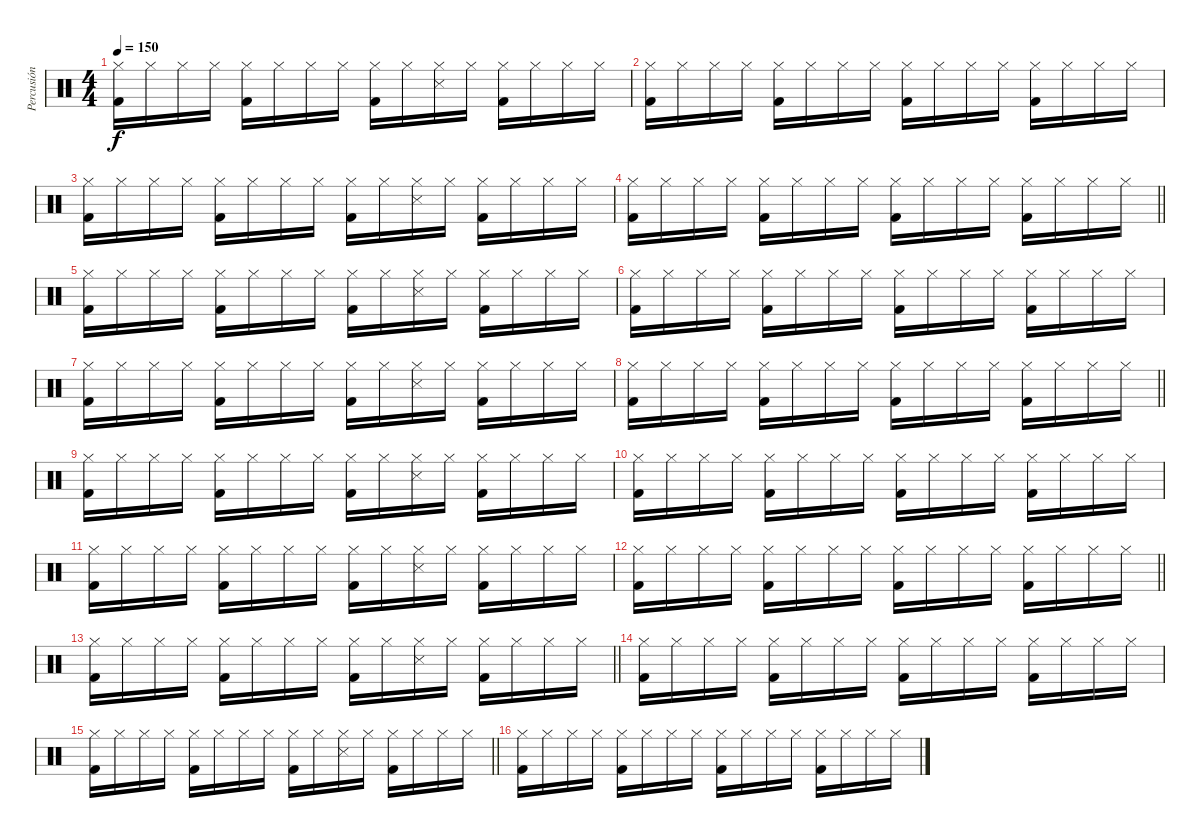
\track ("Percusión" "Percusión") {instrument percussion}
\staff {score}
\articulation defaults
\ts (4 4)
\tempo 150
\clef neutral
\ks c
("Kick (hit) 2" "Hi-Hat (closed)").16{dy f} "Hi-Hat (closed)".16 "Hi-Hat (closed)".16 "Hi-Hat (closed)".16 ("Kick (hit) 2" "Hi-Hat (closed)").16 "Hi-Hat (closed)".16 "Hi-Hat (closed)".16 "Hi-Hat (closed)".16 ("Kick (hit) 2" "Hi-Hat (closed)").16 "Hi-Hat (closed)".16 ("Snare (side stick) 3" "Hi-Hat (closed)").16 "Hi-Hat (closed)".16 ("Kick (hit) 2" "Hi-Hat (closed)").16 "Hi-Hat (closed)".16 "Hi-Hat (closed)".16 "Hi-Hat (closed)".16 |
("Kick (hit) 2" "Hi-Hat (closed)").16 "Hi-Hat (closed)".16 "Hi-Hat (closed)".16 "Hi-Hat (closed)".16 ("Kick (hit) 2" "Hi-Hat (closed)").16 "Hi-Hat (closed)".16 "Hi-Hat (closed)".16 "Hi-Hat (closed)".16 ("Kick (hit) 2" "Hi-Hat (closed)").16 "Hi-Hat (closed)".16 "Hi-Hat (closed)".16 "Hi-Hat (closed)".16 ("Kick (hit) 2" "Hi-Hat (closed)").16 "Hi-Hat (closed)".16 "Hi-Hat (closed)".16 "Hi-Hat (closed)".16 |
("Kick (hit) 2" "Hi-Hat (closed)").16 "Hi-Hat (closed)".16 "Hi-Hat (closed)".16 "Hi-Hat (closed)".16 ("Kick (hit) 2" "Hi-Hat (closed)").16 "Hi-Hat (closed)".16 "Hi-Hat (closed)".16 "Hi-Hat (closed)".16 ("Kick (hit) 2" "Hi-Hat (closed)").16 "Hi-Hat (closed)".16 ("Snare (side stick) 3" "Hi-Hat (closed)").16 "Hi-Hat (closed)".16 ("Kick (hit) 2" "Hi-Hat (closed)").16 "Hi-Hat (closed)".16 "Hi-Hat (closed)".16 "Hi-Hat (closed)".16 |
\barLineRight lightlight
("Kick (hit) 2" "Hi-Hat (closed)").16 "Hi-Hat (closed)".16 "Hi-Hat (closed)".16 "Hi-Hat (closed)".16 ("Kick (hit) 2" "Hi-Hat (closed)").16 "Hi-Hat (closed)".16 "Hi-Hat (closed)".16 "Hi-Hat (closed)".16 ("Kick (hit) 2" "Hi-Hat (closed)").16 "Hi-Hat (closed)".16 "Hi-Hat (closed)".16 "Hi-Hat (closed)".16 ("Kick (hit) 2" "Hi-Hat (closed)").16 "Hi-Hat (closed)".16 "Hi-Hat (closed)".16 "Hi-Hat (closed)".16 |
("Kick (hit) 2" "Hi-Hat (closed)").16 "Hi-Hat (closed)".16 "Hi-Hat (closed)".16 "Hi-Hat (closed)".16 ("Kick (hit) 2" "Hi-Hat (closed)").16 "Hi-Hat (closed)".16 "Hi-Hat (closed)".16 "Hi-Hat (closed)".16 ("Kick (hit) 2" "Hi-Hat (closed)").16 "Hi-Hat (closed)".16 ("Snare (side stick) 3" "Hi-Hat (closed)").16 "Hi-Hat (closed)".16 ("Kick (hit) 2" "Hi-Hat (closed)").16 "Hi-Hat (closed)".16 "Hi-Hat (closed)".16 "Hi-Hat (closed)".16 |
("Kick (hit) 2" "Hi-Hat (closed)").16 "Hi-Hat (closed)".16 "Hi-Hat (closed)".16 "Hi-Hat (closed)".16 ("Kick (hit) 2" "Hi-Hat (closed)").16 "Hi-Hat (closed)".16 "Hi-Hat (closed)".16 "Hi-Hat (closed)".16 ("Kick (hit) 2" "Hi-Hat (closed)").16 "Hi-Hat (closed)".16 "Hi-Hat (closed)".16 "Hi-Hat (closed)".16 ("Kick (hit) 2" "Hi-Hat (closed)").16 "Hi-Hat (closed)".16 "Hi-Hat (closed)".16 "Hi-Hat (closed)".16 |
("Kick (hit) 2" "Hi-Hat (closed)").16 "Hi-Hat (closed)".16 "Hi-Hat (closed)".16 "Hi-Hat (closed)".16 ("Kick (hit) 2" "Hi-Hat (closed)").16 "Hi-Hat (closed)".16 "Hi-Hat (closed)".16 "Hi-Hat (closed)".16 ("Kick (hit) 2" "Hi-Hat (closed)").16 "Hi-Hat (closed)".16 ("Snare (side stick) 3" "Hi-Hat (closed)").16 "Hi-Hat (closed)".16 ("Kick (hit) 2" "Hi-Hat (closed)").16 "Hi-Hat (closed)".16 "Hi-Hat (closed)".16 "Hi-Hat (closed)".16 |
\barLineRight lightlight
("Kick (hit) 2" "Hi-Hat (closed)").16 "Hi-Hat (closed)".16 "Hi-Hat (closed)".16 "Hi-Hat (closed)".16 ("Kick (hit) 2" "Hi-Hat (closed)").16 "Hi-Hat (closed)".16 "Hi-Hat (closed)".16 "Hi-Hat (closed)".16 ("Kick (hit) 2" "Hi-Hat (closed)").16 "Hi-Hat (closed)".16 "Hi-Hat (closed)".16 "Hi-Hat (closed)".16 ("Kick (hit) 2" "Hi-Hat (closed)").16 "Hi-Hat (closed)".16 "Hi-Hat (closed)".16 "Hi-Hat (closed)".16 |
("Kick (hit) 2" "Hi-Hat (closed)").16 "Hi-Hat (closed)".16 "Hi-Hat (closed)".16 "Hi-Hat (closed)".16 ("Kick (hit) 2" "Hi-Hat (closed)").16 "Hi-Hat (closed)".16 "Hi-Hat (closed)".16 "Hi-Hat (closed)".16 ("Kick (hit) 2" "Hi-Hat (closed)").16 "Hi-Hat (closed)".16 ("Snare (side stick) 3" "Hi-Hat (closed)").16 "Hi-Hat (closed)".16 ("Kick (hit) 2" "Hi-Hat (closed)").16 "Hi-Hat (closed)".16 "Hi-Hat (closed)".16 "Hi-Hat (closed)".16 |
("Kick (hit) 2" "Hi-Hat (closed)").16 "Hi-Hat (closed)".16 "Hi-Hat (closed)".16 "Hi-Hat (closed)".16 ("Kick (hit) 2" "Hi-Hat (closed)").16 "Hi-Hat (closed)".16 "Hi-Hat (closed)".16 "Hi-Hat (closed)".16 ("Kick (hit) 2" "Hi-Hat (closed)").16 "Hi-Hat (closed)".16 "Hi-Hat (closed)".16 "Hi-Hat (closed)".16 ("Kick (hit) 2" "Hi-Hat (closed)").16 "Hi-Hat (closed)".16 "Hi-Hat (closed)".16 "Hi-Hat (closed)".16 |
("Kick (hit) 2" "Hi-Hat (closed)").16 "Hi-Hat (closed)".16 "Hi-Hat (closed)".16 "Hi-Hat (closed)".16 ("Kick (hit) 2" "Hi-Hat (closed)").16 "Hi-Hat (closed)".16 "Hi-Hat (closed)".16 "Hi-Hat (closed)".16 ("Kick (hit) 2" "Hi-Hat (closed)").16 "Hi-Hat (closed)".16 ("Snare (side stick) 3" "Hi-Hat (closed)").16 "Hi-Hat (closed)".16 ("Kick (hit) 2" "Hi-Hat (closed)").16 "Hi-Hat (closed)".16 "Hi-Hat (closed)".16 "Hi-Hat (closed)".16 |
\barLineRight lightlight
("Kick (hit) 2" "Hi-Hat (closed)").16 "Hi-Hat (closed)".16 "Hi-Hat (closed)".16 "Hi-Hat (closed)".16 ("Kick (hit) 2" "Hi-Hat (closed)").16 "Hi-Hat (closed)".16 "Hi-Hat (closed)".16 "Hi-Hat (closed)".16 ("Kick (hit) 2" "Hi-Hat (closed)").16 "Hi-Hat (closed)".16 "Hi-Hat (closed)".16 "Hi-Hat (closed)".16 ("Kick (hit) 2" "Hi-Hat (closed)").16 "Hi-Hat (closed)".16 "Hi-Hat (closed)".16 "Hi-Hat (closed)".16 |
\barLineRight lightlight
("Kick (hit) 2" "Hi-Hat (closed)").16 "Hi-Hat (closed)".16 "Hi-Hat (closed)".16 "Hi-Hat (closed)".16 ("Kick (hit) 2" "Hi-Hat (closed)").16 "Hi-Hat (closed)".16 "Hi-Hat (closed)".16 "Hi-Hat (closed)".16 ("Kick (hit) 2" "Hi-Hat (closed)").16 "Hi-Hat (closed)".16 ("Snare (side stick) 3" "Hi-Hat (closed)").16 "Hi-Hat (closed)".16 ("Kick (hit) 2" "Hi-Hat (closed)").16 "Hi-Hat (closed)".16 "Hi-Hat (closed)".16 "Hi-Hat (closed)".16 |
("Kick (hit) 2" "Hi-Hat (closed)").16 "Hi-Hat (closed)".16 "Hi-Hat (closed)".16 "Hi-Hat (closed)".16 ("Kick (hit) 2" "Hi-Hat (closed)").16 "Hi-Hat (closed)".16 "Hi-Hat (closed)".16 "Hi-Hat (closed)".16 ("Kick (hit) 2" "Hi-Hat (closed)").16 "Hi-Hat (closed)".16 "Hi-Hat (closed)".16 "Hi-Hat (closed)".16 ("Kick (hit) 2" "Hi-Hat (closed)").16 "Hi-Hat (closed)".16 "Hi-Hat (closed)".16 "Hi-Hat (closed)".16 |
\barLineRight lightlight
("Kick (hit) 2" "Hi-Hat (closed)").16 "Hi-Hat (closed)".16 "Hi-Hat (closed)".16 "Hi-Hat (closed)".16 ("Kick (hit) 2" "Hi-Hat (closed)").16 "Hi-Hat (closed)".16 "Hi-Hat (closed)".16 "Hi-Hat (closed)".16 ("Kick (hit) 2" "Hi-Hat (closed)").16 "Hi-Hat (closed)".16 ("Snare (side stick) 3" "Hi-Hat (closed)").16 "Hi-Hat (closed)".16 ("Kick (hit) 2" "Hi-Hat (closed)").16 "Hi-Hat (closed)".16 "Hi-Hat (closed)".16 "Hi-Hat (closed)".16 |
("Kick (hit) 2" "Hi-Hat (closed)").16 "Hi-Hat (closed)".16 "Hi-Hat (closed)".16 "Hi-Hat (closed)".16 ("Kick (hit) 2" "Hi-Hat (closed)").16 "Hi-Hat (closed)".16 "Hi-Hat (closed)".16 "Hi-Hat (closed)".16 ("Kick (hit) 2" "Hi-Hat (closed)").16 "Hi-Hat (closed)".16 "Hi-Hat (closed)".16 "Hi-Hat (closed)".16 ("Kick (hit) 2" "Hi-Hat (closed)").16 "Hi-Hat (closed)".16 "Hi-Hat (closed)".16 "Hi-Hat (closed)".16
